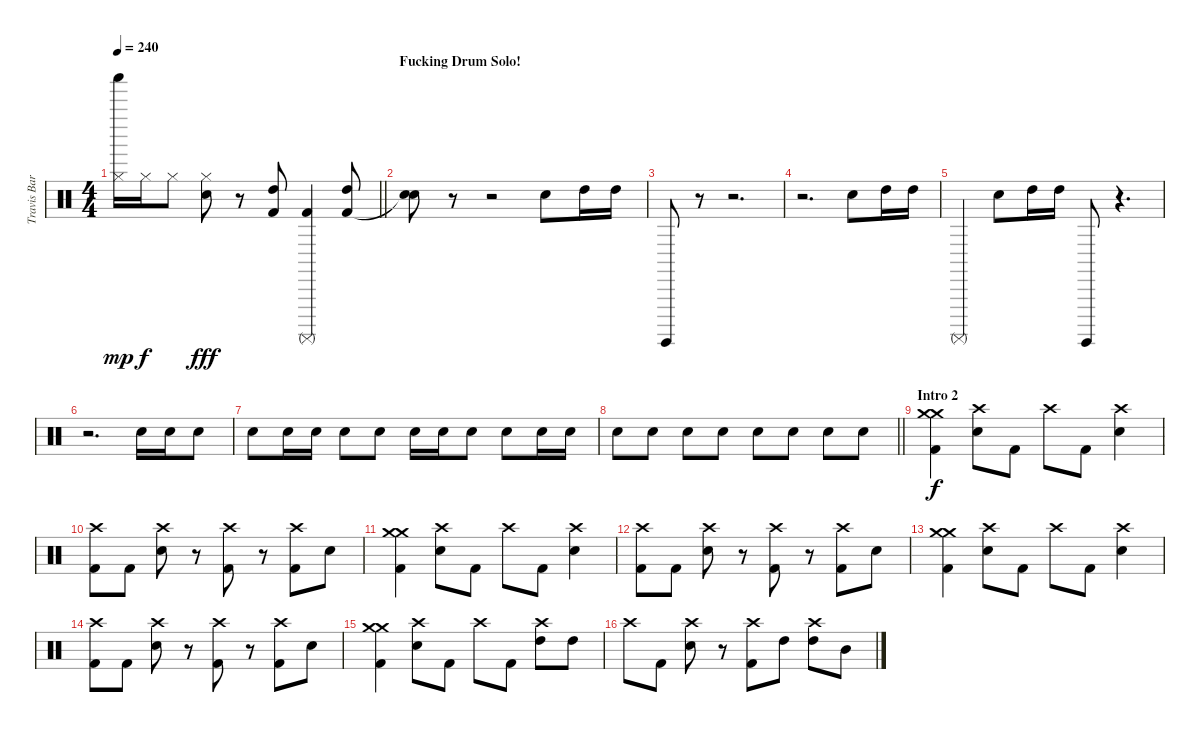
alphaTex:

\track ("Travis Barker - Drums" "Travis Bar") {instrument percussion}
\staff {score}
\articulation defaults
\ts (4 4)
\tempo 240
\clef neutral
\barLineRight lightlight
\ks c
("Hi-Hat (closed)" "Shaker (hit)").16{dy mp} "Hi-Hat (closed)".16{dy f} "Hi-Hat (closed)".8 ("Hi-Hat (closed)" "Electric Snare (hit)").8{dy fff} r.8 ("High Tom (hit)" "Kick (hit) 2").8 ("Surdo (mute)" "Kick (hit) 2").4 ("High Tom (hit)" "Kick (hit) 2").8 |
\section ("" "Fucking Drum Solo!")
("Electric Snare (hit)" "Snare (hit)"{t}).8 r.8 r.2 "Electric Snare (hit)".8 "High Tom (hit)".16 "High Tom (hit)".16 |
"Surdo (hit)".8 r.8 r.2{d} |
r.2{d} "Electric Snare (hit)".8 "High Tom (hit)".16 "High Tom (hit)".16 |
"Surdo (mute)".4 "Electric Snare (hit)".8 "High Tom (hit)".16 "High Tom (hit)".16 "Surdo (hit)".8 r.4{d} |
r.2{d} "Electric Snare (hit)".16 "Electric Snare (hit)".16 "Electric Snare (hit)".8 |
"Electric Snare (hit)".8 "Electric Snare (hit)".16 "Electric Snare (hit)".16 "Electric Snare (hit)".8 "Electric Snare (hit)".8 "Electric Snare (hit)".16 "Electric Snare (hit)".16 "Electric Snare (hit)".8 "Electric Snare (hit)".8 "Electric Snare (hit)".16 "Electric Snare (hit)".16 |
\barLineRight lightlight "Electric Snare (hit)".8 "Electric Snare (hit)".8 "Electric Snare (hit)".8 "Electric Snare (hit)".8 "Electric Snare (hit)".8 "Electric Snare (hit)".8 "Electric Snare (hit)".8 "Electric Snare (hit)".8
|
\section ("" "Intro 2")
("Crash medium (hit)" "Crash medium (hit)" "Kick (hit) 2").4{dy f} ("Crash high (hit)" "Electric Snare (hit)").8 "Kick (hit) 2".8 "Crash high (hit)".8 "Kick (hit) 2".8 ("Crash high (hit)" "Electric Snare (hit)").4 |
("Crash high (hit)" "Kick (hit) 2").8 "Kick (hit) 2".8 ("Crash high (hit)" "Electric Snare (hit)").8 r.8 ("Crash high (hit)" "Kick (hit) 2").8 r.8 ("Crash high (hit)" "Kick (hit) 2").8 "Electric Snare (hit)".8 |
("Crash medium (hit)" "Crash medium (hit)" "Kick (hit) 2").4 ("Crash high (hit)" "Electric Snare (hit)").8 "Kick (hit) 2".8 "Crash high (hit)".8 "Kick (hit) 2".8 ("Crash high (hit)" "Electric Snare (hit)").4 |
("Crash high (hit)" "Kick (hit) 2").8 "Kick (hit) 2".8 ("Crash high (hit)" "Electric Snare (hit)").8 r.8 ("Crash high (hit)" "Kick (hit) 2").8 r.8 ("Crash high (hit)" "Kick (hit) 2").8 "Electric Snare (hit)".8 |
("Crash medium (hit)" "Crash medium (hit)" "Kick (hit) 2").4 ("Crash high (hit)" "Electric Snare (hit)").8 "Kick (hit) 2".8 "Crash high (hit)".8 "Kick (hit) 2".8 ("Crash high (hit)" "Electric Snare (hit)").4 |
("Crash high (hit)" "Kick (hit) 2").8 "Kick (hit) 2".8 ("Crash high (hit)" "Electric Snare (hit)").8 r.8 ("Crash high (hit)" "Kick (hit) 2").8 r.8 ("Crash high (hit)" "Kick (hit) 2").8 "Electric Snare (hit)".8 |
("Crash medium (hit)" "Crash medium (hit)" "Kick (hit) 2").4 ("Crash high (hit)" "Electric Snare (hit)").8 "Kick (hit) 2".8 "Crash high (hit)".8 "Kick (hit) 2".8 ("Crash high (hit)" "High Tom (hit)").8 "High Tom (hit)".8 |
"Crash high (hit)".8 "Kick (hit) 2".8 ("Crash high (hit)" "Electric Snare (hit)").8 r.8 ("Crash high (hit)" "Kick (hit) 2").8 "High Tom (hit)".8 ("Crash high (hit)" "High Tom (hit)").8 "Mid Tom (hit)".8
